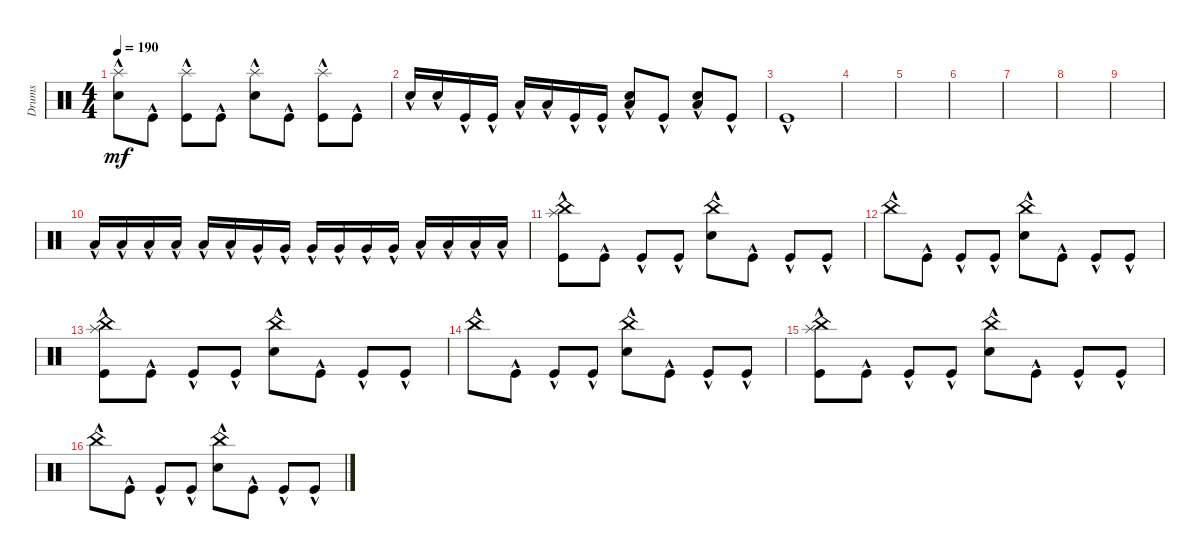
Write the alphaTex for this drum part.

\track ("Drums" "Drums") {instrument percussion}
\staff {score}
\articulation defaults
\ts (4 4)
\tempo 190
\clef neutral
\ks c
("Snare (hit) 2"{hac} "Splash (hit)"{hac}).8{dy mf} "Kick (hit)"{hac}.8 ("Kick (hit)"{hac} "Splash (hit)"{hac}).8 "Kick (hit)"{hac}.8 ("Snare (hit) 2"{hac} "Splash (hit)"{hac}).8 "Kick (hit)"{hac}.8 ("Kick (hit)"{hac} "Splash (hit)"{hac}).8 "Kick (hit)"{hac}.8 |
"Snare (hit) 2"{hac}.16 "Snare (hit) 2"{hac}.16 "Kick (hit)"{hac}.16 "Kick (hit)"{hac}.16 "Low Tom (hit)"{hac}.16 "Low Tom (hit)"{hac}.16 "Kick (hit)"{hac}.16 "Kick (hit)"{hac}.16 ("Low Floor Tom (hit)"{hac} "Snare (hit) 2"{hac}).8 "Kick (hit)"{hac}.8 ("Low Floor Tom (hit)"{hac} "Snare (hit) 2"{hac}).8 "Kick (hit)"{hac}.8 |
"Kick (hit)"{hac}.1 |
|
|
|
|
|
|
"Low Tom (hit)"{hac}.16 "Low Tom (hit)"{hac}.16 "Low Tom (hit)"{hac}.16 "Low Tom (hit)"{hac}.16 "Low Tom (hit)"{hac}.16 "Low Tom (hit)"{hac}.16 "Very Low Tom (hit)"{hac}.16 "Very Low Tom (hit)"{hac}.16 "Very Low Tom (hit)"{hac}.16 "Very Low Tom (hit)"{hac}.16 "Very Low Tom (hit)"{hac}.16 "Very Low Tom (hit)"{hac}.16 "Low Floor Tom (hit)"{hac}.16 "Low Floor Tom (hit)"{hac}.16 "Low Floor Tom (hit)"{hac}.16 "Low Floor Tom (hit)"{hac}.16 |
("Kick (hit)"{hac} "Splash (hit)"{hac} "China (hit)"{hac}).8 "Kick (hit)"{hac}.8 "Kick (hit)"{hac}.8 "Kick (hit)"{hac}.8 ("Snare (hit) 2"{hac} "China (hit)"{hac}).8 "Kick (hit)"{hac}.8 "Kick (hit)"{hac}.8 "Kick (hit)"{hac}.8 |
"China (hit)"{hac}.8 "Kick (hit)"{hac}.8 "Kick (hit)"{hac}.8 "Kick (hit)"{hac}.8 ("Snare (hit) 2"{hac} "China (hit)"{hac}).8 "Kick (hit)"{hac}.8 "Kick (hit)"{hac}.8 "Kick (hit)"{hac}.8 |
("Kick (hit)"{hac} "Splash (hit)"{hac} "China (hit)"{hac}).8 "Kick (hit)"{hac}.8 "Kick (hit)"{hac}.8 "Kick (hit)"{hac}.8 ("Snare (hit) 2"{hac} "China (hit)"{hac}).8 "Kick (hit)"{hac}.8 "Kick (hit)"{hac}.8 "Kick (hit)"{hac}.8 |
"China (hit)"{hac}.8 "Kick (hit)"{hac}.8 "Kick (hit)"{hac}.8 "Kick (hit)"{hac}.8 ("Snare (hit) 2"{hac} "China (hit)"{hac}).8 "Kick (hit)"{hac}.8 "Kick (hit)"{hac}.8 "Kick (hit)"{hac}.8 |
("Kick (hit)"{hac} "Splash (hit)"{hac} "China (hit)"{hac}).8 "Kick (hit)"{hac}.8 "Kick (hit)"{hac}.8 "Kick (hit)"{hac}.8 ("Snare (hit) 2"{hac} "China (hit)"{hac}).8 "Kick (hit)"{hac}.8 "Kick (hit)"{hac}.8 "Kick (hit)"{hac}.8 |
"China (hit)"{hac}.8 "Kick (hit)"{hac}.8 "Kick (hit)"{hac}.8 "Kick (hit)"{hac}.8 ("Snare (hit) 2"{hac} "China (hit)"{hac}).8 "Kick (hit)"{hac}.8 "Kick (hit)"{hac}.8 "Kick (hit)"{hac}.8
